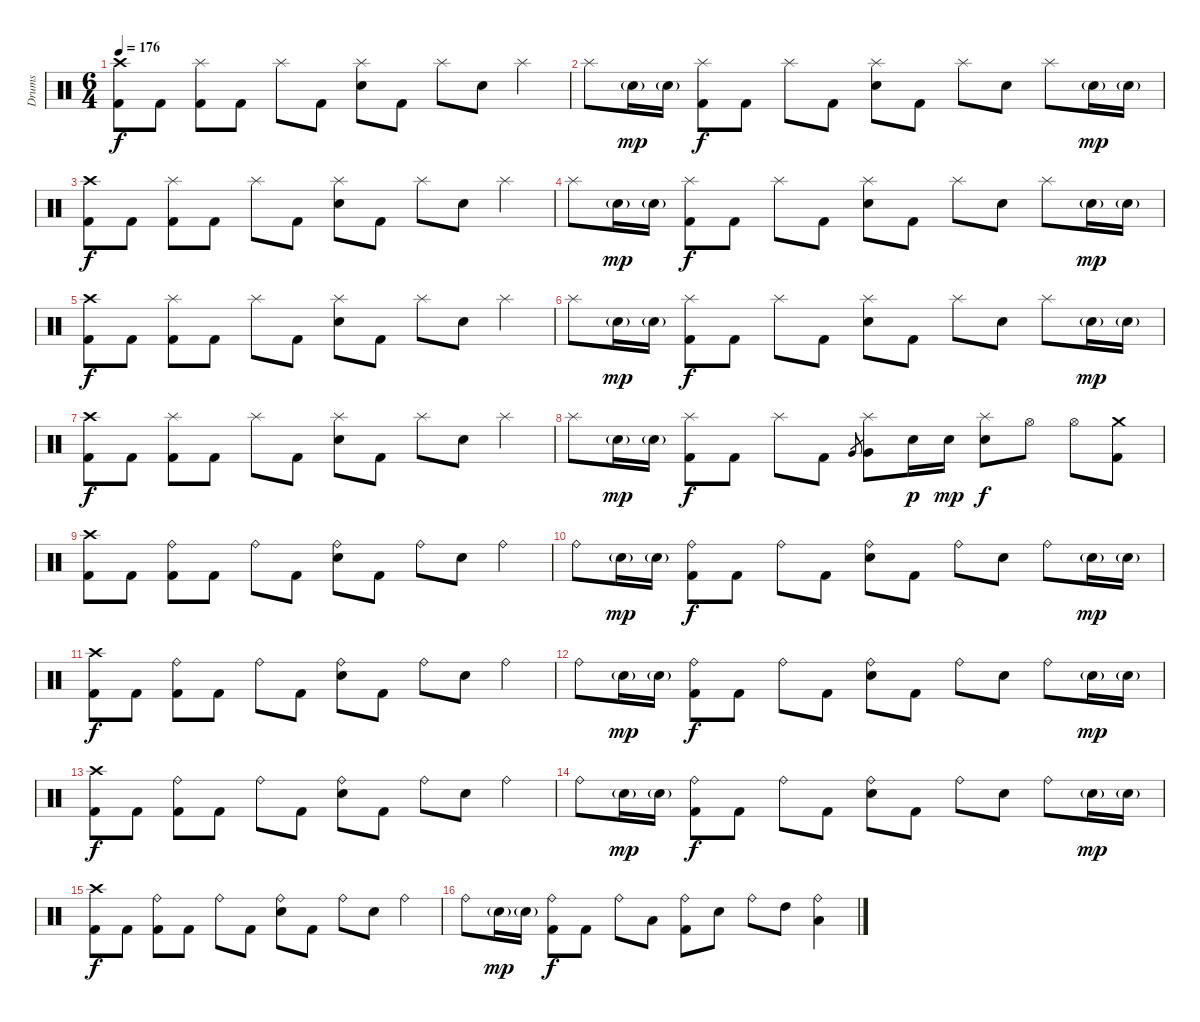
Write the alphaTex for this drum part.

\track ("Drums" "Drums") {instrument percussion}
\staff {score}
\articulation defaults
\ts (6 4)
\tempo 176
\clef neutral
\ks c
("Crash high (hit)" "Kick (hit) 2").8{dy f} "Kick (hit) 2".8 ("Splash (hit)" "Kick (hit) 2").8 "Kick (hit) 2".8 "Splash (hit)".8 "Kick (hit) 2".8 ("Splash (hit)" "Snare (hit) 2").8 "Kick (hit) 2".8 "Splash (hit)".8 "Snare (hit) 2".8 "Splash (hit)".4 |
"Splash (hit)".8 "Snare (hit) 2"{g}.16{dy mp} "Snare (hit) 2"{g}.16 ("Splash (hit)" "Kick (hit) 2").8{dy f} "Kick (hit) 2".8 "Splash (hit)".8 "Kick (hit) 2".8 ("Splash (hit)" "Snare (hit) 2").8 "Kick (hit) 2".8 "Splash (hit)".8 "Snare (hit) 2".8 "Splash (hit)".8 "Snare (hit) 2"{g}.16{dy mp} "Snare (hit) 2"{g}.16 |
("Crash high (hit)" "Kick (hit) 2").8{dy f} "Kick (hit) 2".8 ("Splash (hit)" "Kick (hit) 2").8 "Kick (hit) 2".8 "Splash (hit)".8 "Kick (hit) 2".8 ("Splash (hit)" "Snare (hit) 2").8 "Kick (hit) 2".8 "Splash (hit)".8 "Snare (hit) 2".8 "Splash (hit)".4 |
"Splash (hit)".8 "Snare (hit) 2"{g}.16{dy mp} "Snare (hit) 2"{g}.16 ("Splash (hit)" "Kick (hit) 2").8{dy f} "Kick (hit) 2".8 "Splash (hit)".8 "Kick (hit) 2".8 ("Splash (hit)" "Snare (hit) 2").8 "Kick (hit) 2".8 "Splash (hit)".8 "Snare (hit) 2".8 "Splash (hit)".8 "Snare (hit) 2"{g}.16{dy mp} "Snare (hit) 2"{g}.16 |
("Crash high (hit)" "Kick (hit) 2").8{dy f} "Kick (hit) 2".8 ("Splash (hit)" "Kick (hit) 2").8 "Kick (hit) 2".8 "Splash (hit)".8 "Kick (hit) 2".8 ("Splash (hit)" "Snare (hit) 2").8 "Kick (hit) 2".8 "Splash (hit)".8 "Snare (hit) 2".8 "Splash (hit)".4 |
"Splash (hit)".8 "Snare (hit) 2"{g}.16{dy mp} "Snare (hit) 2"{g}.16 ("Splash (hit)" "Kick (hit) 2").8{dy f} "Kick (hit) 2".8 "Splash (hit)".8 "Kick (hit) 2".8 ("Splash (hit)" "Snare (hit) 2").8 "Kick (hit) 2".8 "Splash (hit)".8 "Snare (hit) 2".8 "Splash (hit)".8 "Snare (hit) 2"{g}.16{dy mp} "Snare (hit) 2"{g}.16 |
("Crash high (hit)" "Kick (hit) 2").8{dy f} "Kick (hit) 2".8 ("Splash (hit)" "Kick (hit) 2").8 "Kick (hit) 2".8 "Splash (hit)".8 "Kick (hit) 2".8 ("Splash (hit)" "Snare (hit) 2").8 "Kick (hit) 2".8 "Splash (hit)".8 "Snare (hit) 2".8 "Splash (hit)".4 |
"Splash (hit)".8 "Snare (hit) 2"{g}.16{dy mp} "Snare (hit) 2"{g}.16 ("Splash (hit)" "Kick (hit) 2").8{dy f} "Kick (hit) 2".8 "Splash (hit)".8 "Kick (hit) 2".8 "Very Low Tom (hit)".8{gr} ("Splash (hit)" "Very Low Tom (hit)").8 "Snare (hit) 2".16{dy p} "Snare (hit) 2".16{dy mp} ("Splash (hit)" "Snare (hit) 2").8{dy f} "Hi-Hat (open)".8 "Hi-Hat (open)".8 ("Crash medium (hit)" "Kick (hit) 2").8 |
("Crash high (hit)" "Kick (hit) 2").8 "Kick (hit) 2".8 ("Ride (bell)" "Kick (hit) 2").8 "Kick (hit) 2".8 "Ride (bell)".8 "Kick (hit) 2".8 ("Ride (bell)" "Snare (hit) 2").8 "Kick (hit) 2".8 "Ride (bell)".8 "Snare (hit) 2".8 "Ride (bell)".4 |
"Ride (bell)".8 "Snare (hit) 2"{g}.16{dy mp} "Snare (hit) 2"{g}.16 ("Ride (bell)" "Kick (hit) 2").8{dy f} "Kick (hit) 2".8 "Ride (bell)".8 "Kick (hit) 2".8 ("Ride (bell)" "Snare (hit) 2").8 "Kick (hit) 2".8 "Ride (bell)".8 "Snare (hit) 2".8 "Ride (bell)".8 "Snare (hit) 2"{g}.16{dy mp} "Snare (hit) 2"{g}.16 |
("Crash high (hit)" "Kick (hit) 2").8{dy f} "Kick (hit) 2".8 ("Ride (bell)" "Kick (hit) 2").8 "Kick (hit) 2".8 "Ride (bell)".8 "Kick (hit) 2".8 ("Ride (bell)" "Snare (hit) 2").8 "Kick (hit) 2".8 "Ride (bell)".8 "Snare (hit) 2".8 "Ride (bell)".4 |
"Ride (bell)".8 "Snare (hit) 2"{g}.16{dy mp} "Snare (hit) 2"{g}.16 ("Ride (bell)" "Kick (hit) 2").8{dy f} "Kick (hit) 2".8 "Ride (bell)".8 "Kick (hit) 2".8 ("Ride (bell)" "Snare (hit) 2").8 "Kick (hit) 2".8 "Ride (bell)".8 "Snare (hit) 2".8 "Ride (bell)".8 "Snare (hit) 2"{g}.16{dy mp} "Snare (hit) 2"{g}.16 |
("Crash high (hit)" "Kick (hit) 2").8{dy f} "Kick (hit) 2".8 ("Ride (bell)" "Kick (hit) 2").8 "Kick (hit) 2".8 "Ride (bell)".8 "Kick (hit) 2".8 ("Ride (bell)" "Snare (hit) 2").8 "Kick (hit) 2".8 "Ride (bell)".8 "Snare (hit) 2".8 "Ride (bell)".4 |
"Ride (bell)".8 "Snare (hit) 2"{g}.16{dy mp} "Snare (hit) 2"{g}.16 ("Ride (bell)" "Kick (hit) 2").8{dy f} "Kick (hit) 2".8 "Ride (bell)".8 "Kick (hit) 2".8 ("Ride (bell)" "Snare (hit) 2").8 "Kick (hit) 2".8 "Ride (bell)".8 "Snare (hit) 2".8 "Ride (bell)".8 "Snare (hit) 2"{g}.16{dy mp} "Snare (hit) 2"{g}.16 |
("Crash high (hit)" "Kick (hit) 2").8{dy f} "Kick (hit) 2".8 ("Ride (bell)" "Kick (hit) 2").8 "Kick (hit) 2".8 "Ride (bell)".8 "Kick (hit) 2".8 ("Ride (bell)" "Snare (hit) 2").8 "Kick (hit) 2".8 "Ride (bell)".8 "Snare (hit) 2".8 "Ride (bell)".4 |
"Ride (bell)".8 "Snare (hit) 2"{g}.16{dy mp} "Snare (hit) 2"{g}.16 ("Ride (bell)" "Kick (hit) 2").8{dy f} "Kick (hit) 2".8 "Ride (bell)".8 "Low Tom (hit)".8 ("Ride (bell)" "Kick (hit) 2").8 "Snare (hit) 2".8 "Ride (bell)".8 "High Tom (hit)".8 ("Ride (bell)" "Low Tom (hit)").4
